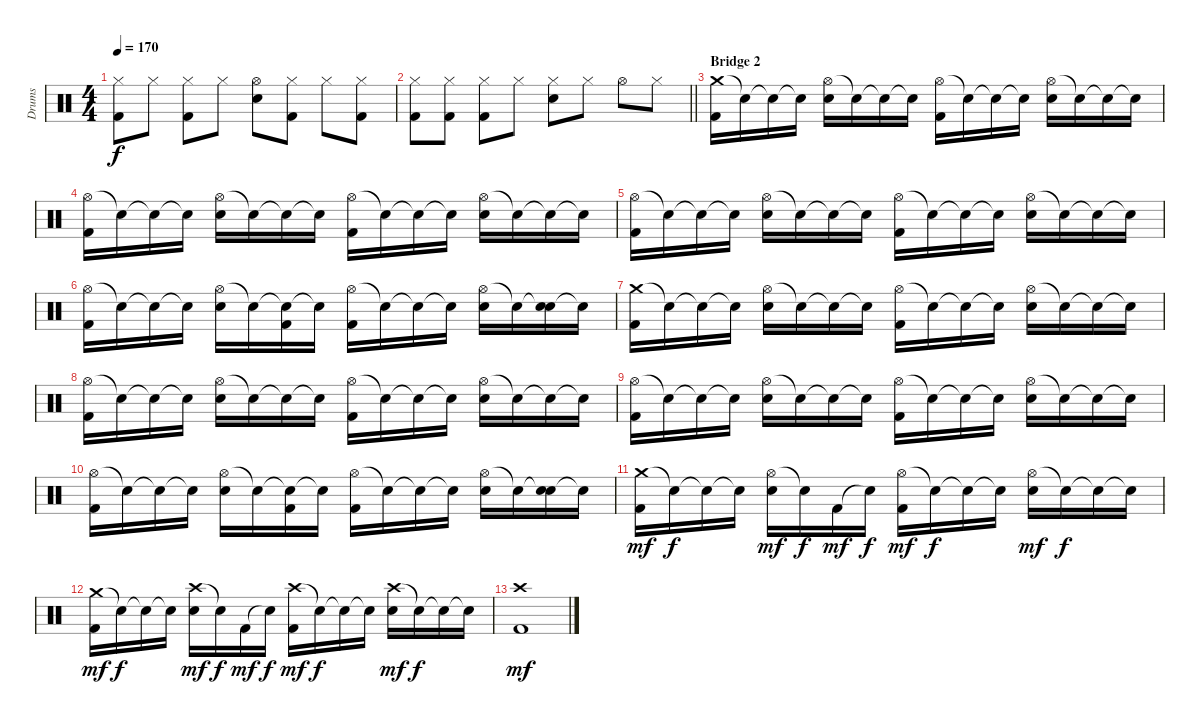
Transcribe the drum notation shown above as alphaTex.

\track ("Drums" "Drums") {instrument percussion}
\staff {score}
\articulation defaults
\ts (4 4)
\tempo 170
\clef neutral
\ks c
("Hi-Hat (closed)" "Kick (hit) 2").8{dy f} "Hi-Hat (closed)".8 ("Hi-Hat (closed)" "Kick (hit) 2").8 "Hi-Hat (closed)".8 ("Hi-Hat (open)" "Snare (hit) 2").8 ("Hi-Hat (closed)" "Kick (hit) 2").8 "Hi-Hat (closed)".8 ("Hi-Hat (closed)" "Kick (hit) 2").8 |
\barLineRight lightlight
("Hi-Hat (closed)" "Kick (hit) 2").8 ("Hi-Hat (closed)" "Kick (hit) 2").8 ("Hi-Hat (closed)" "Kick (hit) 2").8 "Hi-Hat (closed)".8 ("Hi-Hat (closed)" "Snare (hit) 2").8 "Hi-Hat (closed)".8 "Hi-Hat (open)".8 "Hi-Hat (closed)".8 |
\section ("" "Bridge 2")
("Crash medium (hit)" "Kick (hit) 2").16 "Snare (hit)"{t}.16 "Snare (hit)"{t}.16 "Snare (hit)"{t}.16 ("Hi-Hat (open)" "Snare (hit) 2").16 "Snare (hit)"{t}.16 "Snare (hit)"{t}.16 "Snare (hit)"{t}.16 ("Hi-Hat (open)" "Kick (hit) 2").16 "Snare (hit)"{t}.16 "Snare (hit)"{t}.16 "Snare (hit)"{t}.16 ("Hi-Hat (open)" "Snare (hit) 2").16 "Snare (hit)"{t}.16 "Snare (hit)"{t}.16 "Snare (hit)"{t}.16 |
("Hi-Hat (open)" "Kick (hit) 2").16 "Snare (hit)"{t}.16 "Snare (hit)"{t}.16 "Snare (hit)"{t}.16 ("Hi-Hat (open)" "Snare (hit) 2").16 "Snare (hit)"{t}.16 "Snare (hit)"{t}.16 "Snare (hit)"{t}.16 ("Hi-Hat (open)" "Kick (hit) 2").16 "Snare (hit)"{t}.16 "Snare (hit)"{t}.16 "Snare (hit)"{t}.16 ("Hi-Hat (open)" "Snare (hit) 2").16 "Snare (hit)"{t}.16 "Snare (hit)"{t}.16 "Snare (hit)"{t}.16 |
("Hi-Hat (open)" "Kick (hit) 2").16 "Snare (hit)"{t}.16 "Snare (hit)"{t}.16 "Snare (hit)"{t}.16 ("Hi-Hat (open)" "Snare (hit) 2").16 "Snare (hit)"{t}.16 "Snare (hit)"{t}.16 "Snare (hit)"{t}.16 ("Hi-Hat (open)" "Kick (hit) 2").16 "Snare (hit)"{t}.16 "Snare (hit)"{t}.16 "Snare (hit)"{t}.16 ("Hi-Hat (open)" "Snare (hit) 2").16 "Snare (hit)"{t}.16 "Snare (hit)"{t}.16 "Snare (hit)"{t}.16 |
("Hi-Hat (open)" "Kick (hit) 2").16 "Snare (hit)"{t}.16 "Snare (hit)"{t}.16 "Snare (hit)"{t}.16 ("Hi-Hat (open)" "Snare (hit) 2").16 "Snare (hit)"{t}.16 ("Snare (hit)"{t} "Kick (hit) 2").16 "Snare (hit)"{t}.16 ("Hi-Hat (open)" "Kick (hit) 2").16 "Snare (hit)"{t}.16 "Snare (hit)"{t}.16 "Snare (hit)"{t}.16 ("Hi-Hat (open)" "Snare (hit) 2").16 "Snare (hit)"{t}.16 ("Snare (hit)"{t} "Snare (hit) 2").16 "Snare (hit)"{t}.16 |
("Crash medium (hit)" "Kick (hit) 2").16 "Snare (hit)"{t}.16 "Snare (hit)"{t}.16 "Snare (hit)"{t}.16 ("Hi-Hat (open)" "Snare (hit) 2").16 "Snare (hit)"{t}.16 "Snare (hit)"{t}.16 "Snare (hit)"{t}.16 ("Hi-Hat (open)" "Kick (hit) 2").16 "Snare (hit)"{t}.16 "Snare (hit)"{t}.16 "Snare (hit)"{t}.16 ("Hi-Hat (open)" "Snare (hit) 2").16 "Snare (hit)"{t}.16 "Snare (hit)"{t}.16 "Snare (hit)"{t}.16 |
("Hi-Hat (open)" "Kick (hit) 2").16 "Snare (hit)"{t}.16 "Snare (hit)"{t}.16 "Snare (hit)"{t}.16 ("Hi-Hat (open)" "Snare (hit) 2").16 "Snare (hit)"{t}.16 "Snare (hit)"{t}.16 "Snare (hit)"{t}.16 ("Hi-Hat (open)" "Kick (hit) 2").16 "Snare (hit)"{t}.16 "Snare (hit)"{t}.16 "Snare (hit)"{t}.16 ("Hi-Hat (open)" "Snare (hit) 2").16 "Snare (hit)"{t}.16 "Snare (hit)"{t}.16 "Snare (hit)"{t}.16 |
("Hi-Hat (open)" "Kick (hit) 2").16 "Snare (hit)"{t}.16 "Snare (hit)"{t}.16 "Snare (hit)"{t}.16 ("Hi-Hat (open)" "Snare (hit) 2").16 "Snare (hit)"{t}.16 "Snare (hit)"{t}.16 "Snare (hit)"{t}.16 ("Hi-Hat (open)" "Kick (hit) 2").16 "Snare (hit)"{t}.16 "Snare (hit)"{t}.16 "Snare (hit)"{t}.16 ("Hi-Hat (open)" "Snare (hit) 2").16 "Snare (hit)"{t}.16 "Snare (hit)"{t}.16 "Snare (hit)"{t}.16 |
("Hi-Hat (open)" "Kick (hit) 2").16 "Snare (hit)"{t}.16 "Snare (hit)"{t}.16 "Snare (hit)"{t}.16 ("Hi-Hat (open)" "Snare (hit) 2").16 "Snare (hit)"{t}.16 ("Snare (hit)"{t} "Kick (hit) 2").16 "Snare (hit)"{t}.16 ("Hi-Hat (open)" "Kick (hit) 2").16 "Snare (hit)"{t}.16 "Snare (hit)"{t}.16 "Snare (hit)"{t}.16 ("Hi-Hat (open)" "Snare (hit) 2").16 "Snare (hit)"{t}.16 ("Snare (hit)"{t} "Snare (hit) 2").16 "Snare (hit)"{t}.16 |
("Crash medium (hit)" "Kick (hit) 2").16{dy mf} "Snare (hit)"{t}.16{dy f} "Snare (hit)"{t}.16 "Snare (hit)"{t}.16 ("Hi-Hat (open)" "Snare (hit) 2").16{dy mf} "Snare (hit)"{t}.16{dy f} "Kick (hit) 2".16{dy mf} "Snare (hit)"{t}.16{dy f} ("Hi-Hat (open)" "Kick (hit) 2").16{dy mf} "Snare (hit)"{t}.16{dy f} "Snare (hit)"{t}.16 "Snare (hit)"{t}.16 ("Hi-Hat (open)" "Snare (hit) 2").16{dy mf} "Snare (hit)"{t}.16{dy f} "Snare (hit)"{t}.16 "Snare (hit)"{t}.16 |
("Crash medium (hit)" "Kick (hit) 2").16{dy mf} "Snare (hit)"{t}.16{dy f} "Snare (hit)"{t}.16 "Snare (hit)"{t}.16 ("Crash high (hit)" "Snare (hit) 2").16{dy mf} "Snare (hit)"{t}.16{dy f} "Kick (hit) 2".16{dy mf} "Snare (hit)"{t}.16{dy f} ("Crash high (hit)" "Kick (hit) 2").16{dy mf} "Snare (hit)"{t}.16{dy f} "Snare (hit)"{t}.16 "Snare (hit)"{t}.16 ("Crash high (hit)" "Snare (hit) 2").16{dy mf} "Snare (hit)"{t}.16{dy f} "Snare (hit)"{t}.16 "Snare (hit)"{t}.16 |
("Crash high (hit)" "Kick (hit) 2").1{dy mf}
